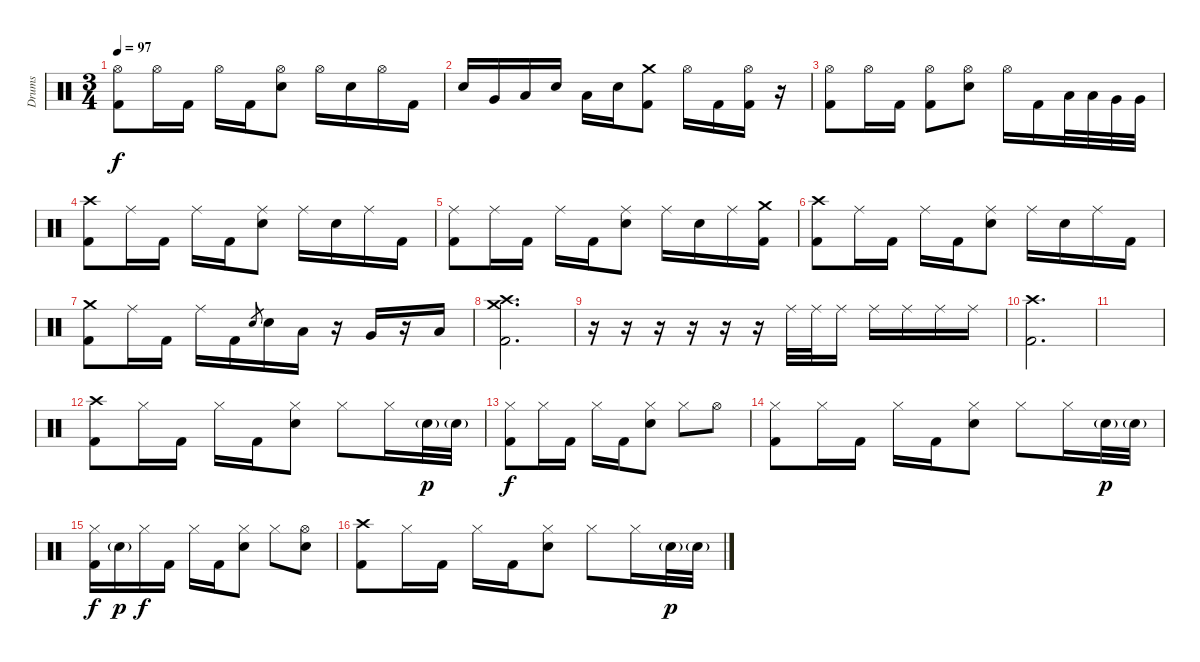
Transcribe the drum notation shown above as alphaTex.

\track ("Drums" "Drums") {instrument percussion}
\staff {score}
\articulation defaults
\ts (3 4)
\tempo 97
\clef neutral
\ks c
("Hi-Hat (open)" "Kick (hit) 2").8{dy f} "Hi-Hat (open)".16 "Kick (hit) 2".16 "Hi-Hat (open)".16 "Kick (hit) 2".16 ("Hi-Hat (open)" "Electric Snare (hit)").8 "Hi-Hat (open)".16 "Electric Snare (hit)".16 "Hi-Hat (open)".16 "Kick (hit) 2".16 |
"Electric Snare (hit)".16 "Very Low Tom (hit)".16 "Low Floor Tom (hit)".16 "Electric Snare (hit)".16 "Low Tom (hit)".16 "Electric Snare (hit)".16 ("Crash medium (hit)" "Kick (hit) 2").8 "Hi-Hat (open)".16 "Kick (hit) 2".16 ("Hi-Hat (open)" "Kick (hit) 2").16 r.16 |
("Hi-Hat (open)" "Kick (hit) 2").8 "Hi-Hat (open)".16 "Kick (hit) 2".16 ("Hi-Hat (open)" "Kick (hit) 2").8 ("Hi-Hat (open)" "Electric Snare (hit)").8 "Hi-Hat (open)".16 "Kick (hit) 2".16 "Low Tom (hit)".32 "Low Tom (hit)".32 "Very Low Tom (hit)".32 "Very Low Tom (hit)".32 |
("Crash high (hit)" "Kick (hit) 2").8 "Ride (middle)".16 "Kick (hit) 2".16 "Ride (middle)".16 "Kick (hit) 2".16 ("Ride (middle)" "Electric Snare (hit)").8 "Ride (middle)".16 "Electric Snare (hit)".16 "Ride (middle)".16 "Kick (hit) 2".16 |
("Ride (middle)" "Kick (hit) 2").8 "Ride (middle)".16 "Kick (hit) 2".16 "Ride (middle)".16 "Kick (hit) 2".16 ("Ride (middle)" "Electric Snare (hit)").8 "Ride (middle)".16 "Electric Snare (hit)".16 "Ride (middle)".16 ("Crash medium (hit)" "Kick (hit) 2").16 |
("Crash high (hit)" "Kick (hit) 2").8 "Ride (middle)".16 "Kick (hit) 2".16 "Ride (middle)".16 "Kick (hit) 2".16 ("Ride (middle)" "Electric Snare (hit)").8 "Ride (middle)".16 "Electric Snare (hit)".16 "Ride (middle)".16 "Kick (hit) 2".16 |
("Crash medium (hit)" "Kick (hit) 2").8 "Ride (middle)".16 "Kick (hit) 2".16 "Ride (middle)".16 "Kick (hit) 2".16 "Electric Snare (hit)".8{gr} "Electric Snare (hit)".16 "Low Tom (hit)".16 r.16 "Very Low Tom (hit)".16 r.16 "Low Floor Tom (hit)".16 |
("Crash medium (hit)" "Crash high (hit)" "Kick (hit) 2").2{d} |
r.16 r.16 r.16 r.16 r.16 r.16 "Ride (middle)".32 "Ride (middle)".32 "Ride (middle)".16 "Ride (middle)".16 "Ride (middle)".16 "Ride (middle)".16 "Ride (middle)".16 |
("Crash high (hit)" "Kick (hit) 2").2{d} |
|
("Crash high (hit)" "Kick (hit) 2").8 "Hi-Hat (closed)".16 "Kick (hit) 2".16 "Hi-Hat (closed)".16 "Kick (hit) 2".16 ("Hi-Hat (closed)" "Electric Snare (hit)").8 "Hi-Hat (closed)".8 "Hi-Hat (closed)".16 "Electric Snare (hit)"{g}.32{dy p} "Electric Snare (hit)"{g}.32 |
("Hi-Hat (closed)" "Kick (hit) 2").8{dy f} "Hi-Hat (closed)".16 "Kick (hit) 2".16 "Hi-Hat (closed)".16 "Kick (hit) 2".16 ("Hi-Hat (closed)" "Electric Snare (hit)").8 "Hi-Hat (closed)".8 "Hi-Hat (open)".8 |
("Hi-Hat (closed)" "Kick (hit) 2").8 "Hi-Hat (closed)".16 "Kick (hit) 2".16 "Hi-Hat (closed)".16 "Kick (hit) 2".16 ("Hi-Hat (closed)" "Electric Snare (hit)").8 "Hi-Hat (closed)".8 "Hi-Hat (closed)".16 "Electric Snare (hit)"{g}.32{dy p} "Electric Snare (hit)"{g}.32 |
("Hi-Hat (closed)" "Kick (hit) 2").16{dy f} "Electric Snare (hit)"{g}.16{dy p} "Hi-Hat (closed)".16{dy f} "Kick (hit) 2".16 "Hi-Hat (closed)".16 "Kick (hit) 2".16 ("Hi-Hat (closed)" "Electric Snare (hit)").8 "Hi-Hat (closed)".8 ("Hi-Hat (open)" "Electric Snare (hit)").8 |
("Crash high (hit)" "Kick (hit) 2").8 "Hi-Hat (closed)".16 "Kick (hit) 2".16 "Hi-Hat (closed)".16 "Kick (hit) 2".16 ("Hi-Hat (closed)" "Electric Snare (hit)").8 "Hi-Hat (closed)".8 "Hi-Hat (closed)".16 "Electric Snare (hit)"{g}.32{dy p} "Electric Snare (hit)"{g}.32
